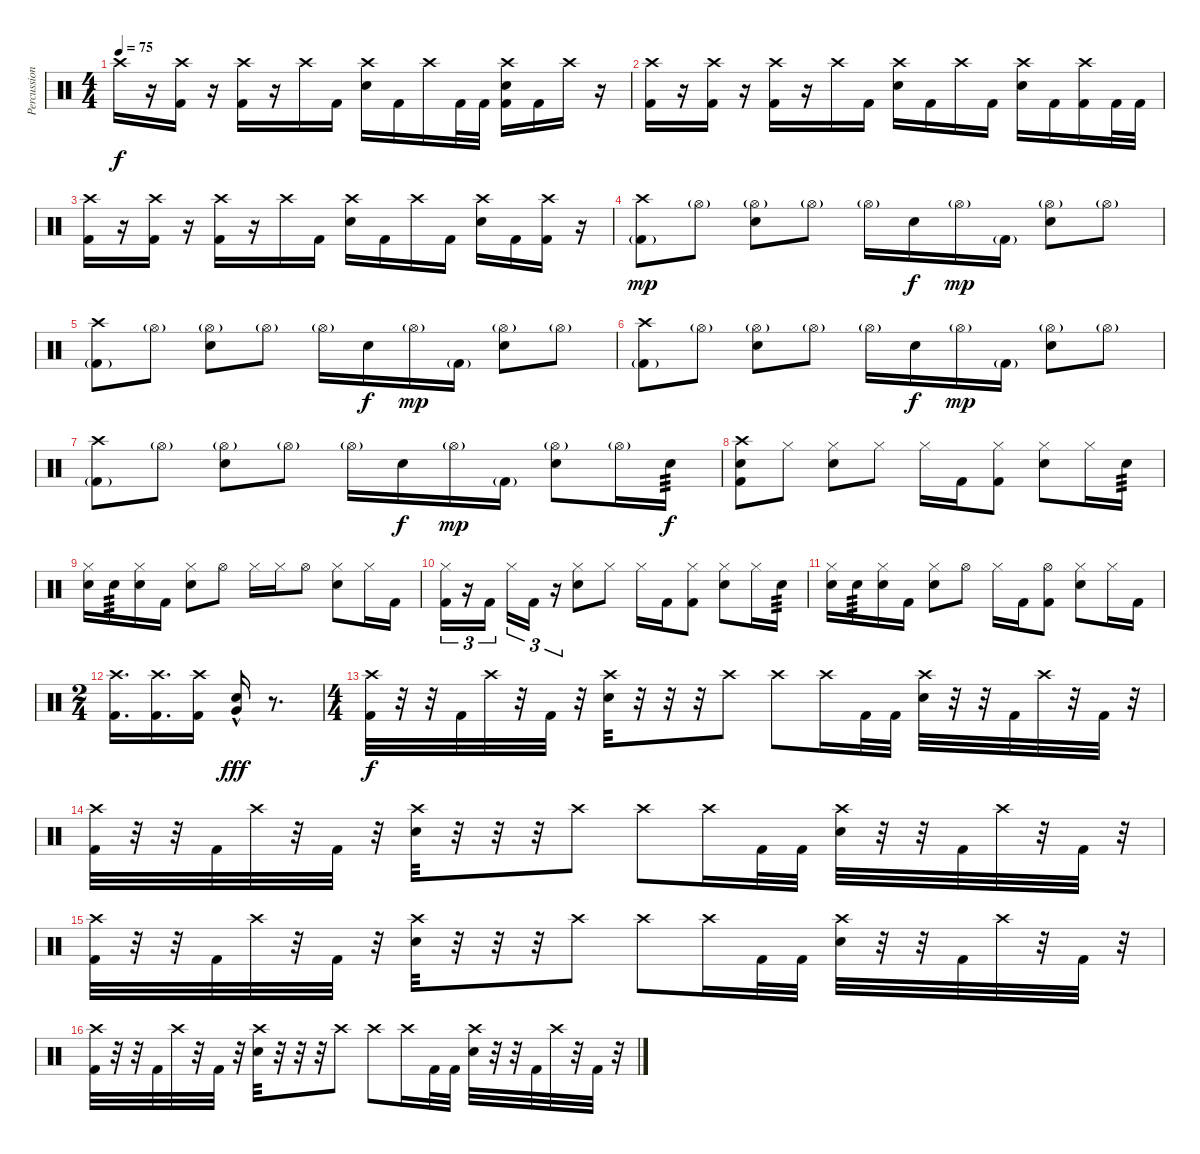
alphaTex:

\track ("Percussion" "Percussion") {instrument percussion}
\staff {score}
\articulation defaults
\ts (4 4)
\tempo 75
\clef neutral
\ks c "Crash high (hit)".16{dy f}
r.16 ("Crash high (hit)" "Kick (hit) 2").16 r.16 ("Crash high (hit)" "Kick (hit) 2").16 r.16 "Crash high (hit)".16 "Kick (hit) 2".16 ("Crash high (hit)" "Electric Snare (hit)").16 "Kick (hit) 2".16 "Crash high (hit)".16 "Kick (hit) 2".32 "Kick (hit) 2".32 ("Crash high (hit)" "Electric Snare (hit)" "Kick (hit) 2").16 "Kick (hit) 2".16 "Crash high (hit)".16 r.16 |
("Crash high (hit)" "Kick (hit) 2").16 r.16 ("Crash high (hit)" "Kick (hit) 2").16 r.16 ("Crash high (hit)" "Kick (hit) 2").16 r.16 "Crash high (hit)".16 "Kick (hit) 2".16 ("Crash high (hit)" "Electric Snare (hit)").16 "Kick (hit) 2".16 "Crash high (hit)".16 "Kick (hit) 2".16 ("Crash high (hit)" "Electric Snare (hit)").16 "Kick (hit) 2".16 ("Crash high (hit)" "Kick (hit) 2").16 "Kick (hit) 2".32 "Kick (hit) 2".32 |
("Crash high (hit)" "Kick (hit) 2").16 r.16 ("Crash high (hit)" "Kick (hit) 2").16 r.16 ("Crash high (hit)" "Kick (hit) 2").16 r.16 "Crash high (hit)".16 "Kick (hit) 2".16 ("Crash high (hit)" "Electric Snare (hit)").16 "Kick (hit) 2".16 "Crash high (hit)".16 "Kick (hit) 2".16 ("Crash high (hit)" "Electric Snare (hit)").16 "Kick (hit) 2".16 ("Crash high (hit)" "Kick (hit) 2").16 r.16 |
("Crash high (hit)" "Kick (hit) 2"{g}).8{dy mp volume 10} "Hi-Hat (open)"{g}.8 ("Hi-Hat (open)"{g} "Electric Snare (hit)").8 "Hi-Hat (open)"{g}.8 "Hi-Hat (open)"{g}.16 "Electric Snare (hit)".16{dy f} "Hi-Hat (open)"{g}.16{dy mp} "Kick (hit) 2"{g}.16 ("Hi-Hat (open)"{g} "Electric Snare (hit)").8 "Hi-Hat (open)"{g}.8 |
("Crash high (hit)" "Kick (hit) 2"{g}).8{volume 8} "Hi-Hat (open)"{g}.8 ("Hi-Hat (open)"{g} "Electric Snare (hit)").8 "Hi-Hat (open)"{g}.8 "Hi-Hat (open)"{g}.16 "Electric Snare (hit)".16{dy f} "Hi-Hat (open)"{g}.16{dy mp} "Kick (hit) 2"{g}.16 ("Hi-Hat (open)"{g} "Electric Snare (hit)").8 "Hi-Hat (open)"{g}.8 |
("Crash high (hit)" "Kick (hit) 2"{g}).8{volume 8} "Hi-Hat (open)"{g}.8 ("Hi-Hat (open)"{g} "Electric Snare (hit)").8 "Hi-Hat (open)"{g}.8 "Hi-Hat (open)"{g}.16 "Electric Snare (hit)".16{dy f} "Hi-Hat (open)"{g}.16{dy mp} "Kick (hit) 2"{g}.16 ("Hi-Hat (open)"{g} "Electric Snare (hit)").8 "Hi-Hat (open)"{g}.8 |
("Crash high (hit)" "Kick (hit) 2"{g}).8{volume 8} "Hi-Hat (open)"{g}.8 ("Hi-Hat (open)"{g} "Electric Snare (hit)").8 "Hi-Hat (open)"{g}.8 "Hi-Hat (open)"{g}.16 "Electric Snare (hit)".16{dy f} "Hi-Hat (open)"{g}.16{dy mp} "Kick (hit) 2"{g}.16 ("Hi-Hat (open)"{g} "Electric Snare (hit)").8 "Hi-Hat (open)"{g}.16 "Electric Snare (hit)".16{tp 3 dy f} |
("Crash high (hit)" "Electric Snare (hit)" "Kick (hit) 2").8{volume 16} "Hi-Hat (closed)".8 ("Hi-Hat (closed)" "Electric Snare (hit)").8 "Hi-Hat (closed)".8 "Hi-Hat (closed)".16 "Kick (hit) 2".16 ("Hi-Hat (closed)" "Kick (hit) 2").8 ("Hi-Hat (closed)" "Electric Snare (hit)").8 "Hi-Hat (closed)".16 "Electric Snare (hit)".16{tp 3} |
("Hi-Hat (closed)" "Electric Snare (hit)").16 "Electric Snare (hit)".16{tp 3} ("Hi-Hat (closed)" "Electric Snare (hit)").16 "Kick (hit) 2".16 ("Hi-Hat (closed)" "Electric Snare (hit)").8 "Hi-Hat (open)".8 "Hi-Hat (closed)".16 "Hi-Hat (closed)".16 "Hi-Hat (open)".8 ("Hi-Hat (closed)" "Electric Snare (hit)").8 "Hi-Hat (closed)".16 "Kick (hit) 2".16 |
("Hi-Hat (closed)" "Kick (hit) 2").16{tu (3 2)} r.16{tu (3 2)} "Kick (hit) 2".16{tu (3 2) beam splitsecondary} "Hi-Hat (closed)".16{tu (3 2)} "Kick (hit) 2".16{tu (3 2)} r.16{tu (3 2)} ("Hi-Hat (closed)" "Electric Snare (hit)").8 "Hi-Hat (closed)".8 "Hi-Hat (closed)".16 "Kick (hit) 2".16 ("Hi-Hat (closed)" "Kick (hit) 2").8 ("Hi-Hat (closed)" "Electric Snare (hit)").8 "Hi-Hat (closed)".16 "Electric Snare (hit)".16{tp 3} |
("Hi-Hat (closed)" "Electric Snare (hit)").16 "Electric Snare (hit)".16{tp 3} ("Hi-Hat (closed)" "Electric Snare (hit)").16 "Kick (hit) 2".16 ("Hi-Hat (closed)" "Electric Snare (hit)").8 "Hi-Hat (open)".8 "Hi-Hat (closed)".16 "Kick (hit) 2".16 ("Hi-Hat (open)" "Kick (hit) 2").8 ("Hi-Hat (closed)" "Electric Snare (hit)").8 "Hi-Hat (closed)".16 "Kick (hit) 2".16 |
\ts (2 4)
("Crash high (hit)" "Kick (hit) 2").16{d} ("Crash high (hit)" "Kick (hit) 2").16{d} ("Crash high (hit)" "Kick (hit) 2").16 ("Very Low Tom (hit)" "Electric Snare (hit)"{hac}).16{dy fff} r.8{d} |
\ts (4 4)
("Crash high (hit)" "Kick (hit) 2").32{dy f} r.32 r.32 "Kick (hit) 2".32 "Crash high (hit)".32 r.32 "Kick (hit) 2".32 r.32 ("Crash high (hit)" "Electric Snare (hit)").32 r.32 r.32 r.32 "Crash high (hit)".8 "Crash high (hit)".8 "Crash high (hit)".16 "Kick (hit) 2".32 "Kick (hit) 2".32 ("Crash high (hit)" "Electric Snare (hit)").32 r.32 r.32 "Kick (hit) 2".32 "Crash high (hit)".32 r.32 "Kick (hit) 2".32 r.32 |
("Crash high (hit)" "Kick (hit) 2").32 r.32 r.32 "Kick (hit) 2".32 "Crash high (hit)".32 r.32 "Kick (hit) 2".32 r.32 ("Crash high (hit)" "Electric Snare (hit)").32 r.32 r.32 r.32 "Crash high (hit)".8 "Crash high (hit)".8 "Crash high (hit)".16 "Kick (hit) 2".32 "Kick (hit) 2".32 ("Crash high (hit)" "Electric Snare (hit)").32 r.32 r.32 "Kick (hit) 2".32 "Crash high (hit)".32 r.32 "Kick (hit) 2".32 r.32 |
("Crash high (hit)" "Kick (hit) 2").32 r.32 r.32 "Kick (hit) 2".32 "Crash high (hit)".32 r.32 "Kick (hit) 2".32 r.32 ("Crash high (hit)" "Electric Snare (hit)").32 r.32 r.32 r.32 "Crash high (hit)".8 "Crash high (hit)".8 "Crash high (hit)".16 "Kick (hit) 2".32 "Kick (hit) 2".32 ("Crash high (hit)" "Electric Snare (hit)").32 r.32 r.32 "Kick (hit) 2".32 "Crash high (hit)".32 r.32 "Kick (hit) 2".32 r.32 |
("Crash high (hit)" "Kick (hit) 2").32 r.32 r.32 "Kick (hit) 2".32 "Crash high (hit)".32 r.32 "Kick (hit) 2".32 r.32 ("Crash high (hit)" "Electric Snare (hit)").32 r.32 r.32 r.32 "Crash high (hit)".8 "Crash high (hit)".8 "Crash high (hit)".16 "Kick (hit) 2".32 "Kick (hit) 2".32 ("Crash high (hit)" "Electric Snare (hit)").32 r.32 r.32 "Kick (hit) 2".32 "Crash high (hit)".32 r.32 "Kick (hit) 2".32 r.32
